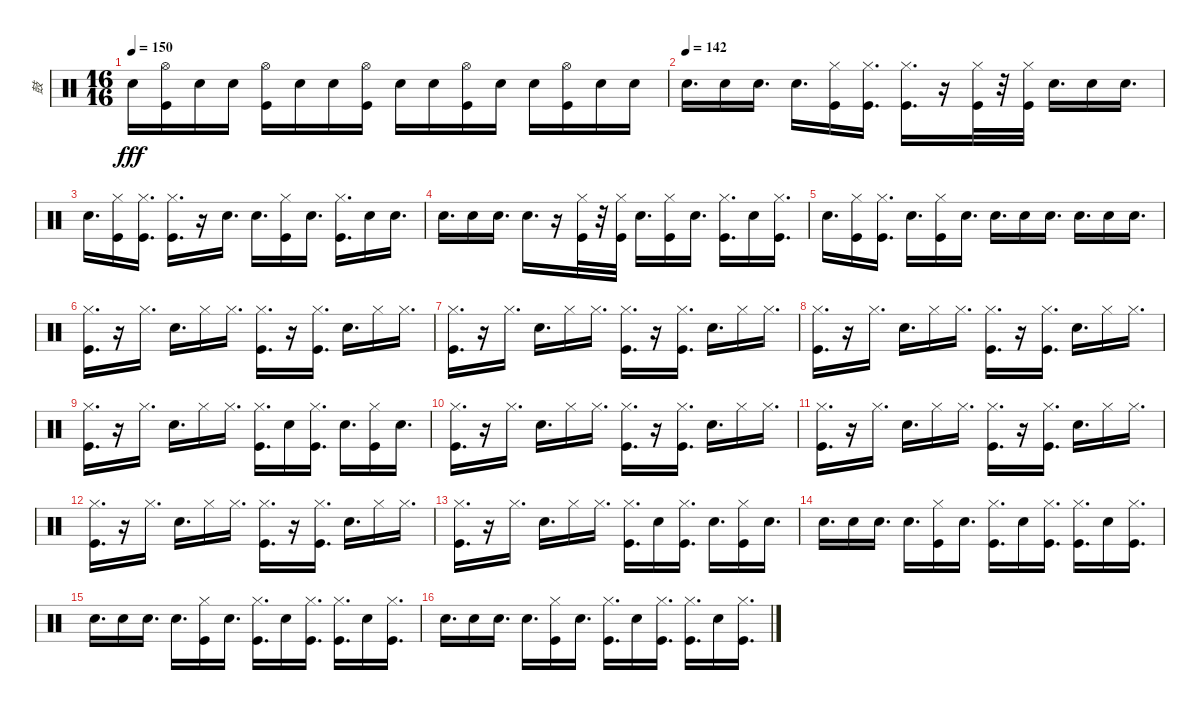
\track ("鼓" "鼓") {instrument percussion}
\staff {score}
\articulation defaults
\ts (16 16)
\tempo 150
\clef neutral
\ks c "Snare (hit) 2".16{dy fff}
("Kick (hit)" "Hi-Hat (open)").16 "Snare (hit) 2".16 "Snare (hit) 2".16 ("Kick (hit)" "Hi-Hat (open)").16 "Snare (hit) 2".16 "Snare (hit) 2".16 ("Kick (hit)" "Hi-Hat (open)").16 "Snare (hit) 2".16 "Snare (hit) 2".16 ("Kick (hit)" "Hi-Hat (open)").16 "Snare (hit) 2".16 "Snare (hit) 2".16 ("Kick (hit)" "Hi-Hat (open)").16 "Snare (hit) 2".16 "Snare (hit) 2".16 |
\tempo (142)
"Snare (hit) 2".16{d} "Snare (hit) 2".16 "Snare (hit) 2".16{d} "Snare (hit) 2".16{d} ("Kick (hit)" "Hi-Hat (closed)").16 ("Kick (hit)" "Hi-Hat (closed)").16{d} ("Kick (hit)" "Hi-Hat (closed)").16{d} r.16 ("Kick (hit)" "Hi-Hat (closed)").32 r.32 ("Kick (hit)" "Hi-Hat (closed)").32 "Snare (hit) 2".16{d} "Snare (hit) 2".16 "Snare (hit) 2".16{d} |
"Snare (hit) 2".16{d} ("Kick (hit)" "Hi-Hat (closed)").16 ("Kick (hit)" "Hi-Hat (closed)").16{d} ("Kick (hit)" "Hi-Hat (closed)").16{d} r.16 "Snare (hit) 2".16{d} "Snare (hit) 2".16{d} ("Kick (hit)" "Hi-Hat (closed)").16 "Snare (hit) 2".16{d} ("Kick (hit)" "Hi-Hat (closed)").16{d} "Snare (hit) 2".16 "Snare (hit) 2".16{d} |
"Snare (hit) 2".16{d} "Snare (hit) 2".16 "Snare (hit) 2".16{d} "Snare (hit) 2".16{d} r.16 ("Kick (hit)" "Hi-Hat (closed)").32 r.32 ("Kick (hit)" "Hi-Hat (closed)").32 "Snare (hit) 2".16{d} ("Kick (hit)" "Hi-Hat (closed)").16 "Snare (hit) 2".16{d} ("Kick (hit)" "Hi-Hat (closed)").16{d} "Snare (hit) 2".16 ("Kick (hit)" "Hi-Hat (closed)").16{d} |
"Snare (hit) 2".16{d} ("Kick (hit)" "Hi-Hat (closed)").16 ("Kick (hit)" "Hi-Hat (closed)").16{d} "Snare (hit) 2".16{d} ("Kick (hit)" "Hi-Hat (closed)").16 "Snare (hit) 2".16{d} "Snare (hit) 2".16{d} "Snare (hit) 2".16 "Snare (hit) 2".16{d} "Snare (hit) 2".16{d} "Snare (hit) 2".16 "Snare (hit) 2".16{d} |
("Hi-Hat (closed)" "Kick (hit)").16{d} r.16 "Hi-Hat (closed)".16{d} "Snare (hit) 2".16{d} "Hi-Hat (closed)".16 "Hi-Hat (closed)".16{d} ("Hi-Hat (closed)" "Kick (hit)").16{d} r.16 ("Hi-Hat (closed)" "Kick (hit)").16{d} "Snare (hit) 2".16{d} "Hi-Hat (closed)".16 "Hi-Hat (closed)".16{d} |
("Hi-Hat (closed)" "Kick (hit)").16{d} r.16 "Hi-Hat (closed)".16{d} "Snare (hit) 2".16{d} "Hi-Hat (closed)".16 "Hi-Hat (closed)".16{d} ("Hi-Hat (closed)" "Kick (hit)").16{d} r.16 ("Hi-Hat (closed)" "Kick (hit)").16{d} "Snare (hit) 2".16{d} "Hi-Hat (closed)".16 "Hi-Hat (closed)".16{d} |
("Hi-Hat (closed)" "Kick (hit)").16{d} r.16 "Hi-Hat (closed)".16{d} "Snare (hit) 2".16{d} "Hi-Hat (closed)".16 "Hi-Hat (closed)".16{d} ("Hi-Hat (closed)" "Kick (hit)").16{d} r.16 ("Hi-Hat (closed)" "Kick (hit)").16{d} "Snare (hit) 2".16{d} "Hi-Hat (closed)".16 "Hi-Hat (closed)".16{d} |
("Hi-Hat (closed)" "Kick (hit)").16{d} r.16 "Hi-Hat (closed)".16{d} "Snare (hit) 2".16{d} "Hi-Hat (closed)".16 "Hi-Hat (closed)".16{d} ("Hi-Hat (closed)" "Kick (hit)").16{d} "Snare (hit) 2".16 ("Hi-Hat (closed)" "Kick (hit)").16{d} "Snare (hit) 2".16{d} ("Hi-Hat (closed)" "Kick (hit)").16 "Snare (hit) 2".16{d} |
("Hi-Hat (closed)" "Kick (hit)").16{d} r.16 "Hi-Hat (closed)".16{d} "Snare (hit) 2".16{d} "Hi-Hat (closed)".16 "Hi-Hat (closed)".16{d} ("Hi-Hat (closed)" "Kick (hit)").16{d} r.16 ("Hi-Hat (closed)" "Kick (hit)").16{d} "Snare (hit) 2".16{d} "Hi-Hat (closed)".16 "Hi-Hat (closed)".16{d} |
("Hi-Hat (closed)" "Kick (hit)").16{d} r.16 "Hi-Hat (closed)".16{d} "Snare (hit) 2".16{d} "Hi-Hat (closed)".16 "Hi-Hat (closed)".16{d} ("Hi-Hat (closed)" "Kick (hit)").16{d} r.16 ("Hi-Hat (closed)" "Kick (hit)").16{d} "Snare (hit) 2".16{d} "Hi-Hat (closed)".16 "Hi-Hat (closed)".16{d} |
("Hi-Hat (closed)" "Kick (hit)").16{d} r.16 "Hi-Hat (closed)".16{d} "Snare (hit) 2".16{d} "Hi-Hat (closed)".16 "Hi-Hat (closed)".16{d} ("Hi-Hat (closed)" "Kick (hit)").16{d} r.16 ("Hi-Hat (closed)" "Kick (hit)").16{d} "Snare (hit) 2".16{d} "Hi-Hat (closed)".16 "Hi-Hat (closed)".16{d} |
("Hi-Hat (closed)" "Kick (hit)").16{d} r.16 "Hi-Hat (closed)".16{d} "Snare (hit) 2".16{d} "Hi-Hat (closed)".16 "Hi-Hat (closed)".16{d} ("Hi-Hat (closed)" "Kick (hit)").16{d} "Snare (hit) 2".16 ("Kick (hit)" "Hi-Hat (closed)").16{d} "Snare (hit) 2".16{d} ("Hi-Hat (closed)" "Kick (hit)").16 "Snare (hit) 2".16{d} |
"Snare (hit) 2".16{d} "Snare (hit) 2".16 "Snare (hit) 2".16{d} "Snare (hit) 2".16{d} ("Kick (hit)" "Hi-Hat (closed)").16 "Snare (hit) 2".16{d} ("Hi-Hat (closed)" "Kick (hit)").16{d} "Snare (hit) 2".16 ("Hi-Hat (closed)" "Kick (hit)").16{d} ("Hi-Hat (closed)" "Kick (hit)").16{d} "Snare (hit) 2".16 ("Hi-Hat (closed)" "Kick (hit)").16{d} |
"Snare (hit) 2".16{d} "Snare (hit) 2".16 "Snare (hit) 2".16{d} "Snare (hit) 2".16{d} ("Kick (hit)" "Hi-Hat (closed)").16 "Snare (hit) 2".16{d} ("Hi-Hat (closed)" "Kick (hit)").16{d} "Snare (hit) 2".16 ("Hi-Hat (closed)" "Kick (hit)").16{d} ("Hi-Hat (closed)" "Kick (hit)").16{d} "Snare (hit) 2".16 ("Hi-Hat (closed)" "Kick (hit)").16{d} |
"Snare (hit) 2".16{d} "Snare (hit) 2".16 "Snare (hit) 2".16{d} "Snare (hit) 2".16{d} ("Kick (hit)" "Hi-Hat (closed)").16 "Snare (hit) 2".16{d} ("Hi-Hat (closed)" "Kick (hit)").16{d} "Snare (hit) 2".16 ("Hi-Hat (closed)" "Kick (hit)").16{d} ("Hi-Hat (closed)" "Kick (hit)").16{d} "Snare (hit) 2".16 ("Hi-Hat (closed)" "Kick (hit)").16{d}
